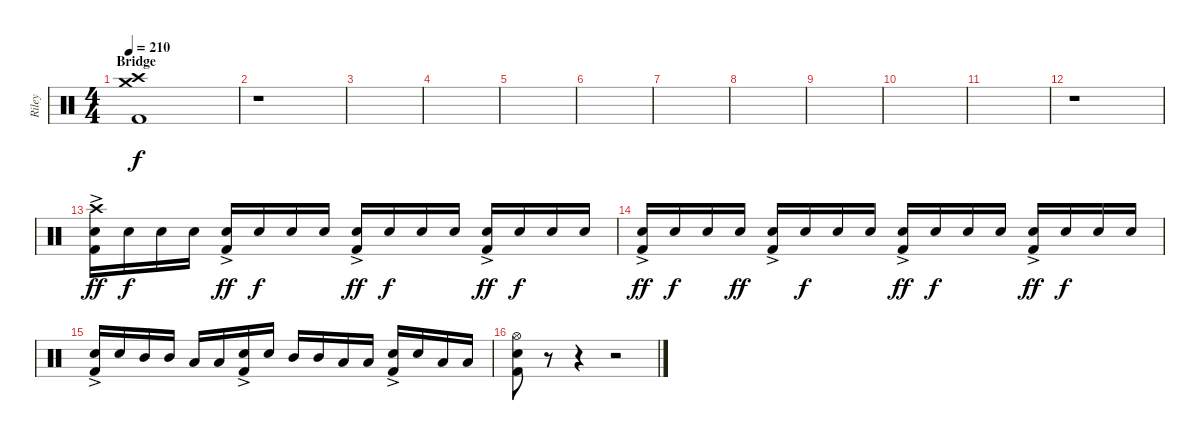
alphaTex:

\track ("Riley" "Riley") {instrument percussion}
\staff {score}
\articulation defaults
\ts (4 4)
\section ("" "Bridge")
\tempo 210
\clef neutral
\ks c
("Crash high (hit)" "Crash medium (hit)" "Kick (hit) 2").1{dy f} |
r.1 |
|
|
|
|
|
|
|
|
|
r.1 |
("Crash high (hit)" "Electric Snare (hit)"{ac} "Kick (hit) 2").16{dy ff} "Electric Snare (hit)".16{dy f} "Electric Snare (hit)".16 "Electric Snare (hit)".16 ("Electric Snare (hit)"{ac} "Kick (hit) 2").16{dy ff} "Electric Snare (hit)".16{dy f} "Electric Snare (hit)".16 "Electric Snare (hit)".16 ("Electric Snare (hit)"{ac} "Kick (hit) 2").16{dy ff} "Electric Snare (hit)".16{dy f} "Electric Snare (hit)".16 "Electric Snare (hit)".16 ("Electric Snare (hit)"{ac} "Kick (hit) 2").16{dy ff} "Electric Snare (hit)".16{dy f} "Electric Snare (hit)".16 "Electric Snare (hit)".16 |
("Electric Snare (hit)"{ac} "Kick (hit) 2").16{dy ff} "Electric Snare (hit)".16{dy f} "Electric Snare (hit)".16 "Electric Snare (hit)".16{dy ff} ("Electric Snare (hit)"{ac} "Kick (hit) 2").16 "Electric Snare (hit)".16{dy f} "Electric Snare (hit)".16 "Electric Snare (hit)".16 ("Electric Snare (hit)"{ac} "Kick (hit) 2").16{dy ff} "Electric Snare (hit)".16{dy f} "Electric Snare (hit)".16 "Electric Snare (hit)".16 ("Electric Snare (hit)"{ac} "Kick (hit) 2").16{dy ff} "Electric Snare (hit)".16{dy f} "Electric Snare (hit)".16 "Electric Snare (hit)".16 |
("Electric Snare (hit)"{ac} "Kick (hit) 2").16 "Electric Snare (hit)".16 "Mid Tom (hit)".16 "Mid Tom (hit)".16 "Low Tom (hit)".16 "Low Tom (hit)".16 ("Electric Snare (hit)"{ac} "Kick (hit) 2").16 "Electric Snare (hit)".16 "Mid Tom (hit)".16 "Mid Tom (hit)".16 "Low Tom (hit)".16 "Low Tom (hit)".16 ("Electric Snare (hit)"{ac} "Kick (hit) 2").16 "Electric Snare (hit)".16 "Low Tom (hit)".16 "Low Tom (hit)".16 |
("Hi-Hat (open)" "Electric Snare (hit)" "Kick (hit) 2").8 r.8{volume 0} r.4{volume 12} r.2
